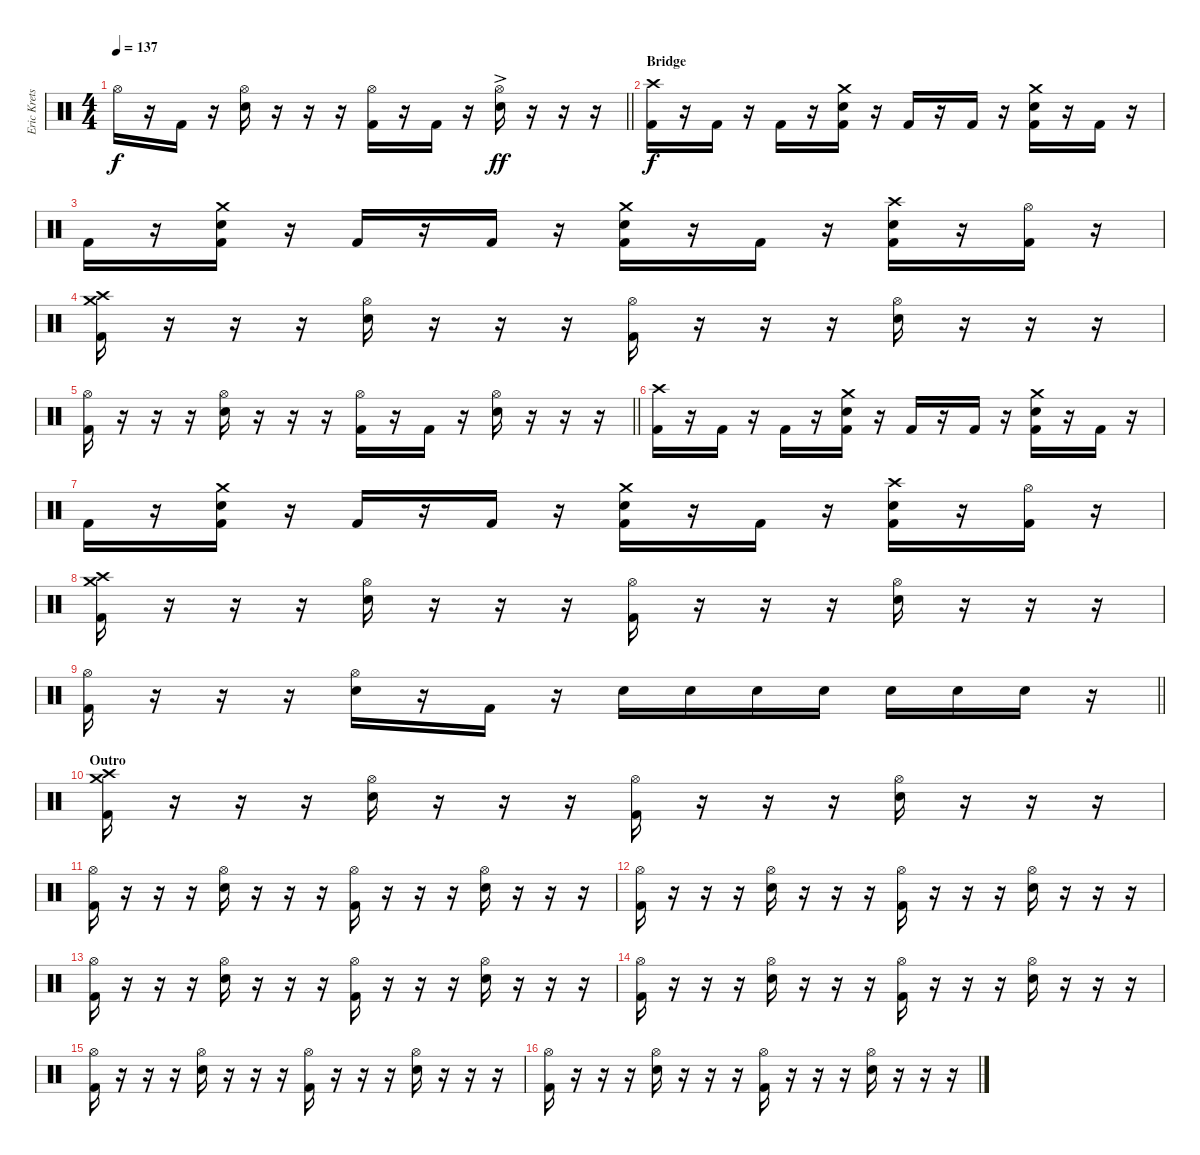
\track ("Eric Krets" "Eric Krets") {instrument percussion}
\staff {score}
\articulation defaults
\ts (4 4)
\tempo 137
\clef neutral
\barLineRight lightlight
\ks c "Hi-Hat (open)".16{dy f}
r.16 "Kick (hit) 2".16 r.16 ("Hi-Hat (open)" "Electric Snare (hit)").16 r.16 r.16 r.16 ("Hi-Hat (open)" "Kick (hit) 2").16 r.16 "Kick (hit) 2".16 r.16 ("Hi-Hat (open)" "Electric Snare (hit)"{ac}).16{dy ff} r.16 r.16 r.16 |
\section ("" "Bridge")
("Crash high (hit)" "Kick (hit) 2").16{dy f} r.16 "Kick (hit) 2".16 r.16 "Kick (hit) 2".16 r.16 ("Crash medium (hit)" "Electric Snare (hit)" "Kick (hit) 2").16 r.16 "Kick (hit) 2".16 r.16 "Kick (hit) 2".16 r.16 ("Crash medium (hit)" "Electric Snare (hit)" "Kick (hit) 2").16 r.16 "Kick (hit) 2".16 r.16 |
"Kick (hit) 2".16 r.16 ("Crash medium (hit)" "Electric Snare (hit)" "Kick (hit) 2").16 r.16 "Kick (hit) 2".16 r.16 "Kick (hit) 2".16 r.16 ("Crash medium (hit)" "Electric Snare (hit)" "Kick (hit) 2").16 r.16 "Kick (hit) 2".16 r.16 ("Crash high (hit)" "Electric Snare (hit)" "Kick (hit) 2").16 r.16 ("Hi-Hat (open)" "Kick (hit) 2").16 r.16 |
("Crash high (hit)" "Crash medium (hit)" "Kick (hit) 2").16 r.16 r.16 r.16 ("Hi-Hat (open)" "Electric Snare (hit)").16 r.16 r.16 r.16 ("Hi-Hat (open)" "Kick (hit) 2").16 r.16 r.16 r.16 ("Hi-Hat (open)" "Electric Snare (hit)").16 r.16 r.16 r.16 |
\barLineRight lightlight
("Hi-Hat (open)" "Kick (hit) 2").16 r.16 r.16 r.16 ("Hi-Hat (open)" "Electric Snare (hit)").16 r.16 r.16 r.16 ("Hi-Hat (open)" "Kick (hit) 2").16 r.16 "Kick (hit) 2".16 r.16 ("Hi-Hat (open)" "Electric Snare (hit)").16 r.16 r.16 r.16 |
("Crash high (hit)" "Kick (hit) 2").16 r.16 "Kick (hit) 2".16 r.16 "Kick (hit) 2".16 r.16 ("Crash medium (hit)" "Electric Snare (hit)" "Kick (hit) 2").16 r.16 "Kick (hit) 2".16 r.16 "Kick (hit) 2".16 r.16 ("Crash medium (hit)" "Electric Snare (hit)" "Kick (hit) 2").16 r.16 "Kick (hit) 2".16 r.16 |
"Kick (hit) 2".16 r.16 ("Crash medium (hit)" "Electric Snare (hit)" "Kick (hit) 2").16 r.16 "Kick (hit) 2".16 r.16 "Kick (hit) 2".16 r.16 ("Crash medium (hit)" "Electric Snare (hit)" "Kick (hit) 2").16 r.16 "Kick (hit) 2".16 r.16 ("Crash high (hit)" "Electric Snare (hit)" "Kick (hit) 2").16 r.16 ("Hi-Hat (open)" "Kick (hit) 2").16 r.16 |
("Crash high (hit)" "Crash medium (hit)" "Kick (hit) 2").16 r.16 r.16 r.16 ("Hi-Hat (open)" "Electric Snare (hit)").16 r.16 r.16 r.16 ("Hi-Hat (open)" "Kick (hit) 2").16 r.16 r.16 r.16 ("Hi-Hat (open)" "Electric Snare (hit)").16 r.16 r.16 r.16 |
\barLineRight lightlight
("Hi-Hat (open)" "Kick (hit) 2").16 r.16 r.16 r.16 ("Hi-Hat (open)" "Electric Snare (hit)").16 r.16 "Kick (hit) 2".16 r.16 "Electric Snare (hit)".16 "Electric Snare (hit)".16 "Electric Snare (hit)".16 "Electric Snare (hit)".16 "Electric Snare (hit)".16 "Electric Snare (hit)".16 "Electric Snare (hit)".16 r.16 |
\section ("" "Outro")
("Crash high (hit)" "Crash medium (hit)" "Kick (hit) 2").16{volume 16} r.16 r.16 r.16 ("Hi-Hat (open)" "Electric Snare (hit)").16 r.16 r.16 r.16 ("Hi-Hat (open)" "Kick (hit) 2").16 r.16 r.16 r.16 ("Hi-Hat (open)" "Electric Snare (hit)").16 r.16 r.16 r.16 |
("Hi-Hat (open)" "Kick (hit) 2").16 r.16 r.16 r.16 ("Hi-Hat (open)" "Electric Snare (hit)").16 r.16 r.16 r.16 ("Hi-Hat (open)" "Kick (hit) 2").16 r.16 r.16 r.16 ("Hi-Hat (open)" "Electric Snare (hit)").16 r.16 r.16 r.16 |
("Hi-Hat (open)" "Kick (hit) 2").16 r.16 r.16 r.16 ("Hi-Hat (open)" "Electric Snare (hit)").16 r.16 r.16 r.16 ("Hi-Hat (open)" "Kick (hit) 2").16 r.16 r.16 r.16 ("Hi-Hat (open)" "Electric Snare (hit)").16 r.16 r.16 r.16 |
("Hi-Hat (open)" "Kick (hit) 2").16 r.16 r.16 r.16 ("Hi-Hat (open)" "Electric Snare (hit)").16 r.16 r.16 r.16 ("Hi-Hat (open)" "Kick (hit) 2").16 r.16 r.16 r.16 ("Hi-Hat (open)" "Electric Snare (hit)").16 r.16 r.16 r.16 |
("Hi-Hat (open)" "Kick (hit) 2").16 r.16 r.16 r.16 ("Hi-Hat (open)" "Electric Snare (hit)").16 r.16 r.16 r.16 ("Hi-Hat (open)" "Kick (hit) 2").16 r.16 r.16 r.16 ("Hi-Hat (open)" "Electric Snare (hit)").16 r.16 r.16 r.16 |
("Hi-Hat (open)" "Kick (hit) 2").16 r.16 r.16 r.16 ("Hi-Hat (open)" "Electric Snare (hit)").16 r.16 r.16 r.16 ("Hi-Hat (open)" "Kick (hit) 2").16 r.16 r.16 r.16 ("Hi-Hat (open)" "Electric Snare (hit)").16 r.16 r.16 r.16 |
("Hi-Hat (open)" "Kick (hit) 2").16 r.16 r.16 r.16 ("Hi-Hat (open)" "Electric Snare (hit)").16 r.16 r.16 r.16 ("Hi-Hat (open)" "Kick (hit) 2").16 r.16 r.16 r.16 ("Hi-Hat (open)" "Electric Snare (hit)").16 r.16 r.16 r.16
